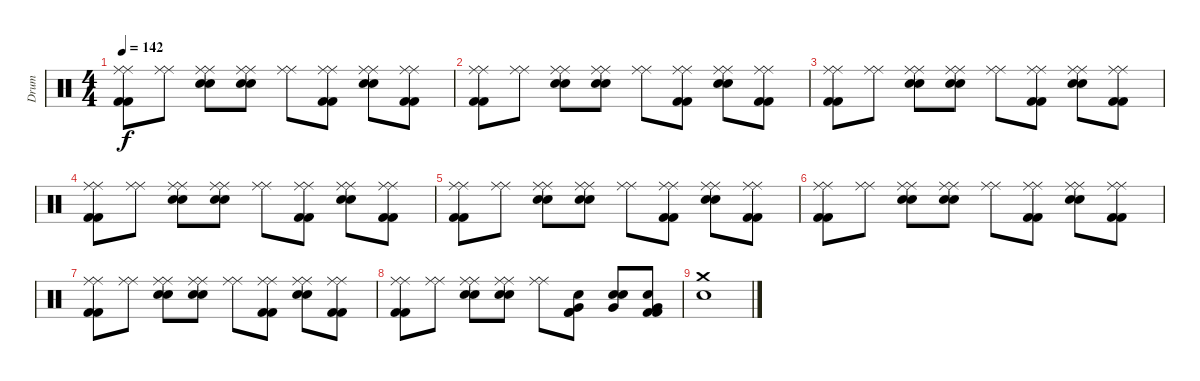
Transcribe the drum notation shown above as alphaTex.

\track ("Drum" "Drum") {instrument percussion}
\staff {score}
\articulation defaults
\ts (4 4)
\tempo 142
\clef neutral
\ks c
("Kick (hit) 2" "Ride (middle)" "Ride (middle)" "Kick (hit) 2").8{dy f} ("Ride (middle)" "Ride (middle)").8 ("Electric Snare (hit)" "Ride (middle)" "Electric Snare (hit)" "Ride (middle)").8 ("Electric Snare (hit)" "Ride (middle)" "Electric Snare (hit)" "Ride (middle)").8 ("Ride (middle)" "Ride (middle)").8 ("Ride (middle)" "Kick (hit) 2" "Ride (middle)" "Kick (hit) 2").8 ("Ride (middle)" "Electric Snare (hit)" "Ride (middle)" "Electric Snare (hit)").8 ("Ride (middle)" "Kick (hit) 2" "Ride (middle)" "Kick (hit) 2").8 |
("Kick (hit) 2" "Ride (middle)" "Ride (middle)" "Kick (hit) 2").8 ("Ride (middle)" "Ride (middle)").8 ("Electric Snare (hit)" "Ride (middle)" "Electric Snare (hit)" "Ride (middle)").8 ("Electric Snare (hit)" "Ride (middle)" "Electric Snare (hit)" "Ride (middle)").8 ("Ride (middle)" "Ride (middle)").8 ("Ride (middle)" "Kick (hit) 2" "Ride (middle)" "Kick (hit) 2").8 ("Ride (middle)" "Electric Snare (hit)" "Ride (middle)" "Electric Snare (hit)").8 ("Ride (middle)" "Kick (hit) 2" "Ride (middle)" "Kick (hit) 2").8 |
("Kick (hit) 2" "Ride (middle)" "Ride (middle)" "Kick (hit) 2").8 ("Ride (middle)" "Ride (middle)").8 ("Electric Snare (hit)" "Ride (middle)" "Electric Snare (hit)" "Ride (middle)").8 ("Electric Snare (hit)" "Ride (middle)" "Electric Snare (hit)" "Ride (middle)").8 ("Ride (middle)" "Ride (middle)").8 ("Ride (middle)" "Kick (hit) 2" "Ride (middle)" "Kick (hit) 2").8 ("Ride (middle)" "Electric Snare (hit)" "Ride (middle)" "Electric Snare (hit)").8 ("Ride (middle)" "Kick (hit) 2" "Ride (middle)" "Kick (hit) 2").8 |
("Kick (hit) 2" "Ride (middle)" "Ride (middle)" "Kick (hit) 2").8 ("Ride (middle)" "Ride (middle)").8 ("Electric Snare (hit)" "Ride (middle)" "Electric Snare (hit)" "Ride (middle)").8 ("Electric Snare (hit)" "Ride (middle)" "Electric Snare (hit)" "Ride (middle)").8 ("Ride (middle)" "Ride (middle)").8 ("Ride (middle)" "Kick (hit) 2" "Ride (middle)" "Kick (hit) 2").8 ("Ride (middle)" "Electric Snare (hit)" "Ride (middle)" "Electric Snare (hit)").8 ("Ride (middle)" "Kick (hit) 2" "Ride (middle)" "Kick (hit) 2").8 |
("Kick (hit) 2" "Ride (middle)" "Ride (middle)" "Kick (hit) 2").8 ("Ride (middle)" "Ride (middle)").8 ("Electric Snare (hit)" "Ride (middle)" "Electric Snare (hit)" "Ride (middle)").8 ("Electric Snare (hit)" "Ride (middle)" "Electric Snare (hit)" "Ride (middle)").8 ("Ride (middle)" "Ride (middle)").8 ("Ride (middle)" "Kick (hit) 2" "Ride (middle)" "Kick (hit) 2").8 ("Ride (middle)" "Electric Snare (hit)" "Ride (middle)" "Electric Snare (hit)").8 ("Ride (middle)" "Kick (hit) 2" "Ride (middle)" "Kick (hit) 2").8 |
("Kick (hit) 2" "Ride (middle)" "Ride (middle)" "Kick (hit) 2").8 ("Ride (middle)" "Ride (middle)").8 ("Electric Snare (hit)" "Ride (middle)" "Electric Snare (hit)" "Ride (middle)").8 ("Electric Snare (hit)" "Ride (middle)" "Electric Snare (hit)" "Ride (middle)").8 ("Ride (middle)" "Ride (middle)").8 ("Ride (middle)" "Kick (hit) 2" "Ride (middle)" "Kick (hit) 2").8 ("Ride (middle)" "Electric Snare (hit)" "Ride (middle)" "Electric Snare (hit)").8 ("Ride (middle)" "Kick (hit) 2" "Ride (middle)" "Kick (hit) 2").8 |
("Kick (hit) 2" "Ride (middle)" "Ride (middle)" "Kick (hit) 2").8 ("Ride (middle)" "Ride (middle)").8 ("Electric Snare (hit)" "Ride (middle)" "Electric Snare (hit)" "Ride (middle)").8 ("Electric Snare (hit)" "Ride (middle)" "Electric Snare (hit)" "Ride (middle)").8 ("Ride (middle)" "Ride (middle)").8 ("Ride (middle)" "Kick (hit) 2" "Ride (middle)" "Kick (hit) 2").8 ("Ride (middle)" "Electric Snare (hit)" "Ride (middle)" "Electric Snare (hit)").8 ("Ride (middle)" "Kick (hit) 2" "Ride (middle)" "Kick (hit) 2").8 |
("Kick (hit) 2" "Ride (middle)" "Ride (middle)" "Kick (hit) 2").8 ("Ride (middle)" "Ride (middle)").8 ("Electric Snare (hit)" "Ride (middle)" "Electric Snare (hit)" "Ride (middle)").8 ("Electric Snare (hit)" "Ride (middle)" "Electric Snare (hit)" "Ride (middle)").8 ("Ride (middle)" "Ride (middle)").8 ("Kick (hit) 2" "Kick (hit) 2" "Electric Snare (hit)" "Very Low Tom (hit)").8 ("Electric Snare (hit)" "Electric Snare (hit)" "Very Low Tom (hit)").8 ("Kick (hit) 2" "Kick (hit) 2" "Electric Snare (hit)" "Very Low Tom (hit)").8 |
("Electric Snare (hit)" "Crash medium (hit)").1
